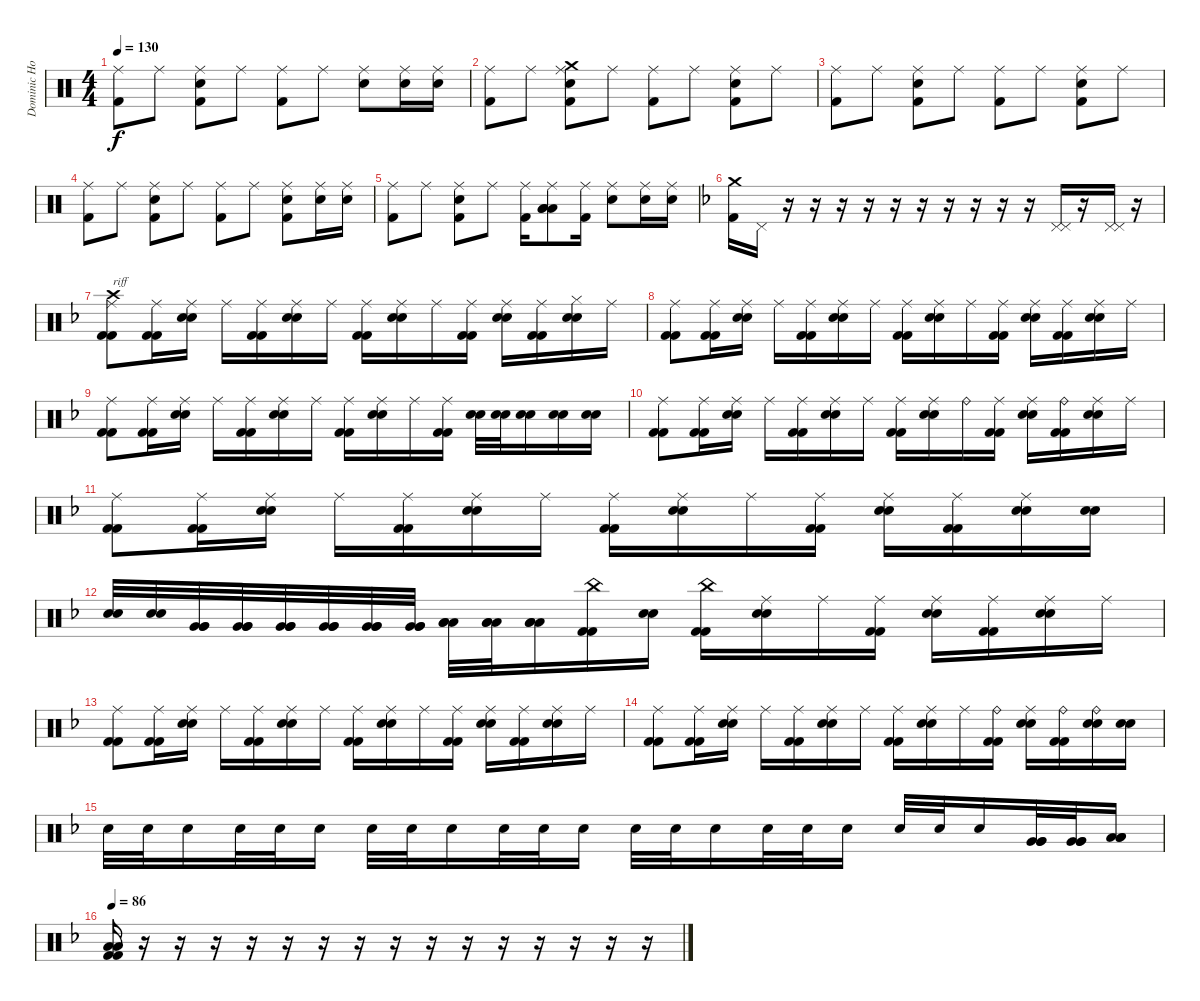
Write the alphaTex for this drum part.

\track ("Dominic Howard" "Dominic Ho") {instrument percussion}
\staff {score}
\articulation defaults
\ts (4 4)
\tempo 130
\clef neutral
\ks c
("Ride (middle)" "Kick (hit) 2").8{dy f} "Ride (middle)".8 ("Ride (middle)" "Kick (hit) 2" "Electric Snare (hit)").8 "Ride (middle)".8 ("Ride (middle)" "Kick (hit) 2").8 "Ride (middle)".8 ("Ride (middle)" "Electric Snare (hit)").8 ("Ride (middle)" "Electric Snare (hit)").16 ("Ride (middle)" "Electric Snare (hit)").16 |
("Ride (middle)" "Kick (hit) 2").8 "Ride (middle)".8 ("Crash medium (hit)" "Ride (middle)" "Kick (hit) 2" "Electric Snare (hit)").8 "Ride (middle)".8 ("Ride (middle)" "Kick (hit) 2").8 "Ride (middle)".8 ("Ride (middle)" "Kick (hit) 2" "Electric Snare (hit)").8 "Ride (middle)".8 |
("Ride (middle)" "Kick (hit) 2").8 "Ride (middle)".8 ("Ride (middle)" "Kick (hit) 2" "Electric Snare (hit)").8 "Ride (middle)".8 ("Ride (middle)" "Kick (hit) 2").8 "Ride (middle)".8 ("Ride (middle)" "Kick (hit) 2" "Electric Snare (hit)").8 "Ride (middle)".8 |
("Ride (middle)" "Kick (hit) 2").8 "Ride (middle)".8 ("Ride (middle)" "Kick (hit) 2" "Electric Snare (hit)").8 "Ride (middle)".8 ("Ride (middle)" "Kick (hit) 2").8 "Ride (middle)".8 ("Ride (middle)" "Kick (hit) 2" "Electric Snare (hit)").8 ("Ride (middle)" "Electric Snare (hit)").16 ("Ride (middle)" "Electric Snare (hit)").16 |
("Ride (middle)" "Kick (hit) 2").8 "Ride (middle)".8 ("Ride (middle)" "Kick (hit) 2" "Electric Snare (hit)").8 "Ride (middle)".8 ("Ride (middle)" "Kick (hit) 2").16 ("Ride (middle)" "Low Tom (hit)" "Low Tom (hit)" "Low Tom (hit)").8 ("Ride (middle)" "Kick (hit) 2").16 ("Ride (middle)" "Electric Snare (hit)").8 ("Ride (middle)" "Electric Snare (hit)").16 ("Ride (middle)" "Electric Snare (hit)").16 |
\ks f
("Crash medium (hit)" "Kick (hit) 2").16 "Pedal Hi-Hat (hit)".16 r.16 r.16 r.16 r.16 r.16 r.16 r.16 r.16 r.16 r.16 ("Pedal Hi-Hat (hit)" "Pedal Hi-Hat (hit)").16 r.16 ("Pedal Hi-Hat (hit)" "Pedal Hi-Hat (hit)").16 r.16 |
("Crash high (hit)" "Ride (middle)" "Kick (hit) 2" "Kick (hit) 2").8{txt "riff"} ("Ride (middle)" "Kick (hit) 2" "Kick (hit) 2").16 ("Ride (middle)" "Electric Snare (hit)" "Electric Snare (hit)").16 "Ride (middle)".16 ("Ride (middle)" "Kick (hit) 2" "Kick (hit) 2").16 ("Ride (middle)" "Electric Snare (hit)" "Electric Snare (hit)").16 "Ride (middle)".16 ("Ride (middle)" "Kick (hit) 2" "Kick (hit) 2").16 ("Ride (middle)" "Electric Snare (hit)" "Electric Snare (hit)").16 "Ride (middle)".16 ("Ride (middle)" "Kick (hit) 2" "Kick (hit) 2").16 ("Ride (middle)" "Electric Snare (hit)" "Electric Snare (hit)").16 ("Ride (middle)" "Kick (hit) 2" "Kick (hit) 2").16 ("Hi-Hat (closed)" "Electric Snare (hit)" "Electric Snare (hit)").16 "Ride (middle)".16 |
("Ride (middle)" "Kick (hit) 2" "Kick (hit) 2").8 ("Ride (middle)" "Kick (hit) 2" "Kick (hit) 2").16 ("Ride (middle)" "Electric Snare (hit)" "Electric Snare (hit)").16 "Ride (middle)".16 ("Ride (middle)" "Kick (hit) 2" "Kick (hit) 2").16 ("Ride (middle)" "Electric Snare (hit)" "Electric Snare (hit)").16 "Ride (middle)".16 ("Ride (middle)" "Kick (hit) 2" "Kick (hit) 2").16 ("Ride (middle)" "Electric Snare (hit)" "Electric Snare (hit)").16 "Ride (middle)".16 ("Ride (middle)" "Kick (hit) 2" "Kick (hit) 2").16 ("Ride (middle)" "Electric Snare (hit)" "Electric Snare (hit)").16 ("Ride (middle)" "Kick (hit) 2" "Kick (hit) 2").16 ("Ride (middle)" "Electric Snare (hit)" "Electric Snare (hit)").16 "Ride (middle)".16 |
("Ride (middle)" "Kick (hit) 2" "Kick (hit) 2").8 ("Ride (middle)" "Kick (hit) 2" "Kick (hit) 2").16 ("Ride (middle)" "Electric Snare (hit)" "Electric Snare (hit)").16 "Ride (middle)".16 ("Ride (middle)" "Kick (hit) 2" "Kick (hit) 2").16 ("Ride (middle)" "Electric Snare (hit)" "Electric Snare (hit)").16 "Ride (middle)".16 ("Ride (middle)" "Kick (hit) 2" "Kick (hit) 2").16 ("Ride (middle)" "Electric Snare (hit)" "Electric Snare (hit)").16 "Ride (middle)".16 ("Ride (middle)" "Kick (hit) 2" "Kick (hit) 2").16 ("Electric Snare (hit)" "Electric Snare (hit)").32 ("Electric Snare (hit)" "Electric Snare (hit)").32 ("Electric Snare (hit)" "Electric Snare (hit)").16 ("Electric Snare (hit)" "Electric Snare (hit)").16 ("Electric Snare (hit)" "Electric Snare (hit)").16 |
("Ride (middle)" "Kick (hit) 2" "Kick (hit) 2").8 ("Ride (middle)" "Kick (hit) 2" "Kick (hit) 2").16 ("Ride (middle)" "Electric Snare (hit)" "Electric Snare (hit)").16 "Ride (middle)".16 ("Ride (middle)" "Kick (hit) 2" "Kick (hit) 2").16 ("Ride (middle)" "Electric Snare (hit)" "Electric Snare (hit)").16 "Ride (middle)".16 ("Ride (middle)" "Kick (hit) 2" "Kick (hit) 2").16 ("Ride (middle)" "Electric Snare (hit)" "Electric Snare (hit)").16 "Ride (bell)".16 ("Ride (middle)" "Kick (hit) 2" "Kick (hit) 2").16 ("Ride (middle)" "Electric Snare (hit)" "Electric Snare (hit)").16 ("Ride (bell)" "Kick (hit) 2" "Kick (hit) 2").16 ("Ride (middle)" "Electric Snare (hit)" "Electric Snare (hit)").16 "Ride (middle)".16 |
("Ride (middle)" "Kick (hit) 2" "Kick (hit) 2").8 ("Ride (middle)" "Kick (hit) 2" "Kick (hit) 2").16 ("Ride (middle)" "Electric Snare (hit)" "Electric Snare (hit)").16 "Ride (middle)".16 ("Ride (middle)" "Kick (hit) 2" "Kick (hit) 2").16 ("Ride (middle)" "Electric Snare (hit)" "Electric Snare (hit)").16 "Ride (middle)".16 ("Ride (middle)" "Kick (hit) 2" "Kick (hit) 2").16 ("Ride (middle)" "Electric Snare (hit)" "Electric Snare (hit)").16 "Ride (middle)".16 ("Ride (middle)" "Kick (hit) 2" "Kick (hit) 2").16 ("Ride (middle)" "Electric Snare (hit)" "Electric Snare (hit)").16 ("Ride (middle)" "Kick (hit) 2" "Kick (hit) 2").16 ("Ride (middle)" "Electric Snare (hit)" "Electric Snare (hit)").16 ("Electric Snare (hit)" "Electric Snare (hit)").16 |
("Electric Snare (hit)" "Electric Snare (hit)").32 ("Electric Snare (hit)" "Electric Snare (hit)").32 ("Very Low Tom (hit)" "Very Low Tom (hit)" "Very Low Tom (hit)").32 ("Very Low Tom (hit)" "Very Low Tom (hit)" "Very Low Tom (hit)").32 ("Very Low Tom (hit)" "Very Low Tom (hit)" "Very Low Tom (hit)").32 ("Very Low Tom (hit)" "Very Low Tom (hit)" "Very Low Tom (hit)").32 ("Very Low Tom (hit)" "Very Low Tom (hit)" "Very Low Tom (hit)").32 ("Very Low Tom (hit)" "Very Low Tom (hit)" "Very Low Tom (hit)").32 ("Low Floor Tom (hit)" "Low Floor Tom (hit)" "Low Floor Tom (hit)").32 ("Low Floor Tom (hit)" "Low Floor Tom (hit)" "Low Floor Tom (hit)").32 ("Low Floor Tom (hit)" "Low Floor Tom (hit)" "Low Floor Tom (hit)").16 ("Kick (hit) 2" "Kick (hit) 2" "China (hit)").16 ("Electric Snare (hit)" "Electric Snare (hit)").16 ("China (hit)" "Kick (hit) 2" "Kick (hit) 2").16 ("Ride (middle)" "Electric Snare (hit)" "Electric Snare (hit)").16 "Ride (middle)".16 ("Ride (middle)" "Kick (hit) 2" "Kick (hit) 2").16 ("Ride (middle)" "Electric Snare (hit)" "Electric Snare (hit)").16 ("Ride (middle)" "Kick (hit) 2" "Kick (hit) 2").16 ("Ride (middle)" "Electric Snare (hit)" "Electric Snare (hit)").16 "Ride (middle)".16 |
("Ride (middle)" "Kick (hit) 2" "Kick (hit) 2").8 ("Ride (middle)" "Kick (hit) 2" "Kick (hit) 2").16 ("Ride (middle)" "Electric Snare (hit)" "Electric Snare (hit)").16 "Ride (middle)".16 ("Ride (middle)" "Kick (hit) 2" "Kick (hit) 2").16 ("Ride (middle)" "Electric Snare (hit)" "Electric Snare (hit)").16 "Ride (middle)".16 ("Ride (middle)" "Kick (hit) 2" "Kick (hit) 2").16 ("Ride (middle)" "Electric Snare (hit)" "Electric Snare (hit)").16 "Ride (middle)".16 ("Ride (middle)" "Kick (hit) 2" "Kick (hit) 2").16 ("Ride (middle)" "Electric Snare (hit)" "Electric Snare (hit)").16 ("Ride (middle)" "Kick (hit) 2" "Kick (hit) 2").16 ("Ride (middle)" "Electric Snare (hit)" "Electric Snare (hit)").16 "Ride (middle)".16 |
("Ride (middle)" "Kick (hit) 2" "Kick (hit) 2").8 ("Ride (middle)" "Kick (hit) 2" "Kick (hit) 2").16 ("Ride (middle)" "Electric Snare (hit)" "Electric Snare (hit)").16 "Ride (middle)".16 ("Ride (middle)" "Kick (hit) 2" "Kick (hit) 2").16 ("Ride (middle)" "Electric Snare (hit)" "Electric Snare (hit)").16 "Ride (middle)".16 ("Ride (middle)" "Kick (hit) 2" "Kick (hit) 2").16 ("Ride (middle)" "Electric Snare (hit)" "Electric Snare (hit)").16 "Ride (middle)".16 ("Ride (bell)" "Kick (hit) 2" "Kick (hit) 2").16 ("Ride (middle)" "Electric Snare (hit)" "Electric Snare (hit)").16 ("Ride (bell)" "Kick (hit) 2" "Kick (hit) 2").16 ("Ride (bell)" "Electric Snare (hit)" "Electric Snare (hit)").16 ("Electric Snare (hit)" "Electric Snare (hit)").16 |
"Electric Snare (hit)".32 "Electric Snare (hit)".32 "Electric Snare (hit)".16 "Electric Snare (hit)".32 "Electric Snare (hit)".32 "Electric Snare (hit)".16 "Electric Snare (hit)".32 "Electric Snare (hit)".32 "Electric Snare (hit)".16 "Electric Snare (hit)".32 "Electric Snare (hit)".32 "Electric Snare (hit)".16 "Electric Snare (hit)".32 "Electric Snare (hit)".32 "Electric Snare (hit)".16 "Electric Snare (hit)".32 "Electric Snare (hit)".32 "Electric Snare (hit)".16 "Electric Snare (hit)".32 "Electric Snare (hit)".32 "Electric Snare (hit)".16 ("Very Low Tom (hit)" "Very Low Tom (hit)" "Very Low Tom (hit)").32 ("Very Low Tom (hit)" "Very Low Tom (hit)" "Very Low Tom (hit)").32 ("Low Floor Tom (hit)" "Low Floor Tom (hit)" "Low Floor Tom (hit)").16 |
\tempo 86
("Low Floor Tom (hit)" "Low Floor Tom (hit)" "Kick (hit) 2" "Kick (hit) 2").16 r.16 r.16 r.16 r.16 r.16 r.16 r.16 r.16 r.16 r.16 r.16 r.16 r.16 r.16 r.16
